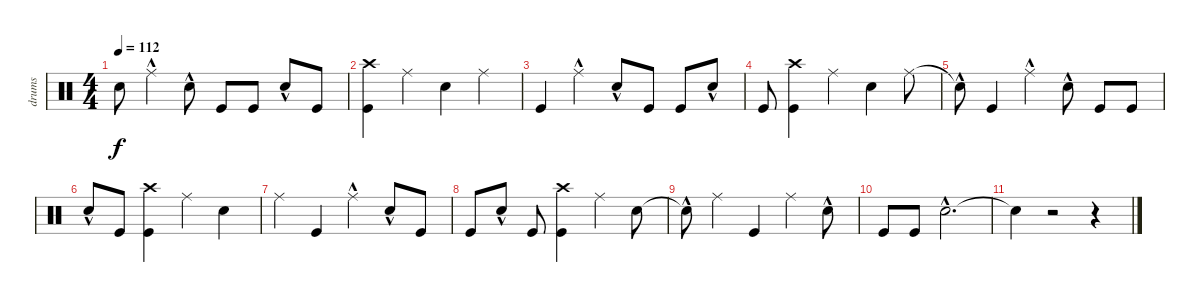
\track ("drums" "drums") {instrument percussion}
\staff {score}
\articulation defaults
\ts (4 4)
\tempo 112
\clef neutral
\ks c "Snare (hit)"{t}.8{dy f} "Ride (middle)"{hac}.4 "Snare (hit) 2"{hac}.8 "Kick (hit)".8 "Kick (hit)".8 "Snare (hit) 2"{hac}.8 "Kick (hit)".8
|
("Kick (hit)" "Crash high (hit)").4 "Ride (middle)".4 "Snare (hit) 2".4 "Ride (middle)".4 |
"Kick (hit)".4 "Ride (middle)"{hac}.4 "Snare (hit) 2"{hac}.8 "Kick (hit)".8 "Kick (hit)".8 "Snare (hit) 2"{hac}.8 |
"Kick (hit)".8 ("Kick (hit)" "Crash high (hit)").4 "Ride (middle)".4 "Snare (hit) 2".4 "Ride (middle)".8 |
"Snare (hit)"{hac t}.8 "Kick (hit)".4 "Ride (middle)"{hac}.4 "Snare (hit) 2"{hac}.8 "Kick (hit)".8 "Kick (hit)".8 |
"Snare (hit) 2"{hac}.8 "Kick (hit)".8 ("Kick (hit)" "Crash high (hit)").4 "Ride (middle)".4 "Snare (hit) 2".4 |
"Ride (middle)".4 "Kick (hit)".4 "Ride (middle)"{hac}.4 "Snare (hit) 2"{hac}.8 "Kick (hit)".8 |
"Kick (hit)".8 "Snare (hit) 2"{hac}.8 "Kick (hit)".8 ("Kick (hit)" "Crash high (hit)").4 "Ride (middle)".4 "Snare (hit) 2".8 |
"Snare (hit)"{hac t}.8 "Ride (middle)".4 "Kick (hit)".4 "Ride (middle)".4 "Snare (hit) 2"{hac}.8 |
"Kick (hit)".8 "Kick (hit)".8 "Snare (hit) 2"{hac}.2{d} |
"Snare (hit)"{t}.4 r.2 r.4
